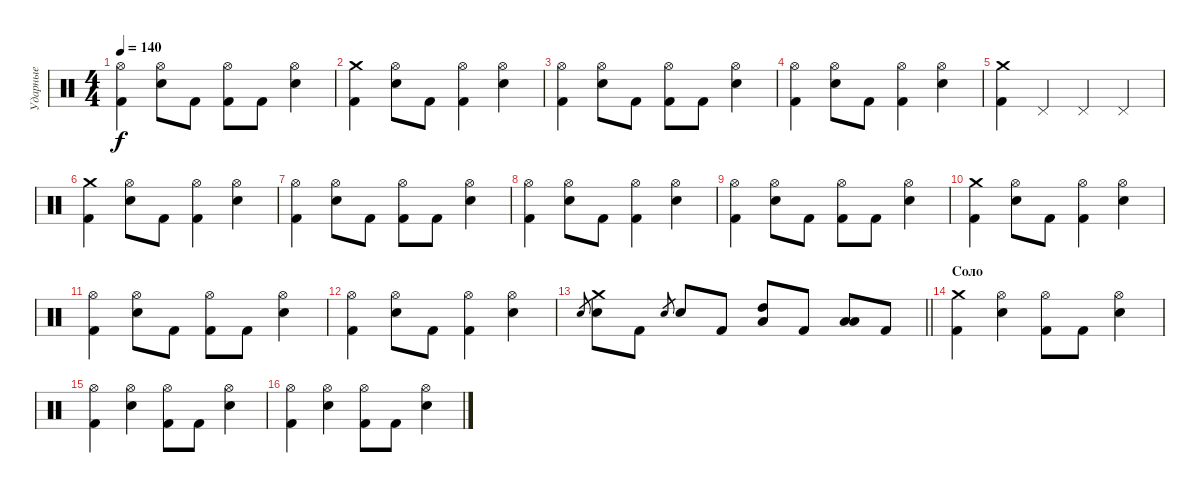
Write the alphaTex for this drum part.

\track ("Ударные" "Ударные") {instrument percussion}
\staff {score}
\articulation defaults
\ts (4 4)
\tempo 140
\clef neutral
\ks c
("Hi-Hat (open)" "Kick (hit) 2").4{dy f} ("Hi-Hat (open)" "Snare (hit) 2").8 "Kick (hit) 2".8 ("Kick (hit) 2" "Hi-Hat (open)").8 "Kick (hit) 2".8 ("Snare (hit) 2" "Hi-Hat (open)").4 |
("Kick (hit) 2" "Crash medium (hit)").4 ("Hi-Hat (open)" "Snare (hit) 2").8 "Kick (hit) 2".8 ("Hi-Hat (open)" "Kick (hit) 2").4 ("Snare (hit) 2" "Hi-Hat (open)").4 |
("Hi-Hat (open)" "Kick (hit) 2").4 ("Hi-Hat (open)" "Snare (hit) 2").8 "Kick (hit) 2".8 ("Kick (hit) 2" "Hi-Hat (open)").8 "Kick (hit) 2".8 ("Snare (hit) 2" "Hi-Hat (open)").4 |
("Kick (hit) 2" "Hi-Hat (open)").4 ("Hi-Hat (open)" "Snare (hit) 2").8 "Kick (hit) 2".8 ("Hi-Hat (open)" "Kick (hit) 2").4 ("Snare (hit) 2" "Hi-Hat (open)").4 |
("Kick (hit) 2" "Crash medium (hit)").4 "Pedal Hi-Hat (hit)".4 "Pedal Hi-Hat (hit)".4 "Pedal Hi-Hat (hit)".4 |
("Kick (hit) 2" "Crash medium (hit)").4 ("Hi-Hat (open)" "Snare (hit) 2").8 "Kick (hit) 2".8 ("Hi-Hat (open)" "Kick (hit) 2").4 ("Snare (hit) 2" "Hi-Hat (open)").4 |
("Hi-Hat (open)" "Kick (hit) 2").4 ("Hi-Hat (open)" "Snare (hit) 2").8 "Kick (hit) 2".8 ("Kick (hit) 2" "Hi-Hat (open)").8 "Kick (hit) 2".8 ("Snare (hit) 2" "Hi-Hat (open)").4 |
("Kick (hit) 2" "Hi-Hat (open)").4 ("Hi-Hat (open)" "Snare (hit) 2").8 "Kick (hit) 2".8 ("Hi-Hat (open)" "Kick (hit) 2").4 ("Snare (hit) 2" "Hi-Hat (open)").4 |
("Hi-Hat (open)" "Kick (hit) 2").4 ("Hi-Hat (open)" "Snare (hit) 2").8 "Kick (hit) 2".8 ("Kick (hit) 2" "Hi-Hat (open)").8 "Kick (hit) 2".8 ("Snare (hit) 2" "Hi-Hat (open)").4 |
("Kick (hit) 2" "Crash medium (hit)").4 ("Hi-Hat (open)" "Snare (hit) 2").8 "Kick (hit) 2".8 ("Hi-Hat (open)" "Kick (hit) 2").4 ("Snare (hit) 2" "Hi-Hat (open)").4 |
("Hi-Hat (open)" "Kick (hit) 2").4 ("Hi-Hat (open)" "Snare (hit) 2").8 "Kick (hit) 2".8 ("Kick (hit) 2" "Hi-Hat (open)").8 "Kick (hit) 2".8 ("Snare (hit) 2" "Hi-Hat (open)").4 |
("Kick (hit) 2" "Hi-Hat (open)").4 ("Hi-Hat (open)" "Snare (hit) 2").8 "Kick (hit) 2".8 ("Hi-Hat (open)" "Kick (hit) 2").4 ("Snare (hit) 2" "Hi-Hat (open)").4 |
\barLineRight lightlight "Snare (hit) 2".8{gr}
("Snare (hit) 2" "Crash medium (hit)").8 "Kick (hit) 2".8 "Snare (hit) 2".8{gr} "Snare (hit) 2".8 "Kick (hit) 2".8 ("High Tom (hit)" "Low Tom (hit)").8 "Kick (hit) 2".8 ("Low Floor Tom (hit)" "Low Tom (hit)").8 "Kick (hit) 2".8 |
\section ("" "Соло")
("Crash medium (hit)" "Kick (hit) 2").4 ("Hi-Hat (open)" "Snare (hit) 2").4 ("Hi-Hat (open)" "Kick (hit) 2").8 "Kick (hit) 2".8 ("Snare (hit) 2" "Hi-Hat (open)").4 |
("Hi-Hat (open)" "Kick (hit) 2").4 ("Hi-Hat (open)" "Snare (hit) 2").4 ("Hi-Hat (open)" "Kick (hit) 2").8 "Kick (hit) 2".8 ("Snare (hit) 2" "Hi-Hat (open)").4 |
("Hi-Hat (open)" "Kick (hit) 2").4 ("Hi-Hat (open)" "Snare (hit) 2").4 ("Hi-Hat (open)" "Kick (hit) 2").8 "Kick (hit) 2".8 ("Snare (hit) 2" "Hi-Hat (open)").4
